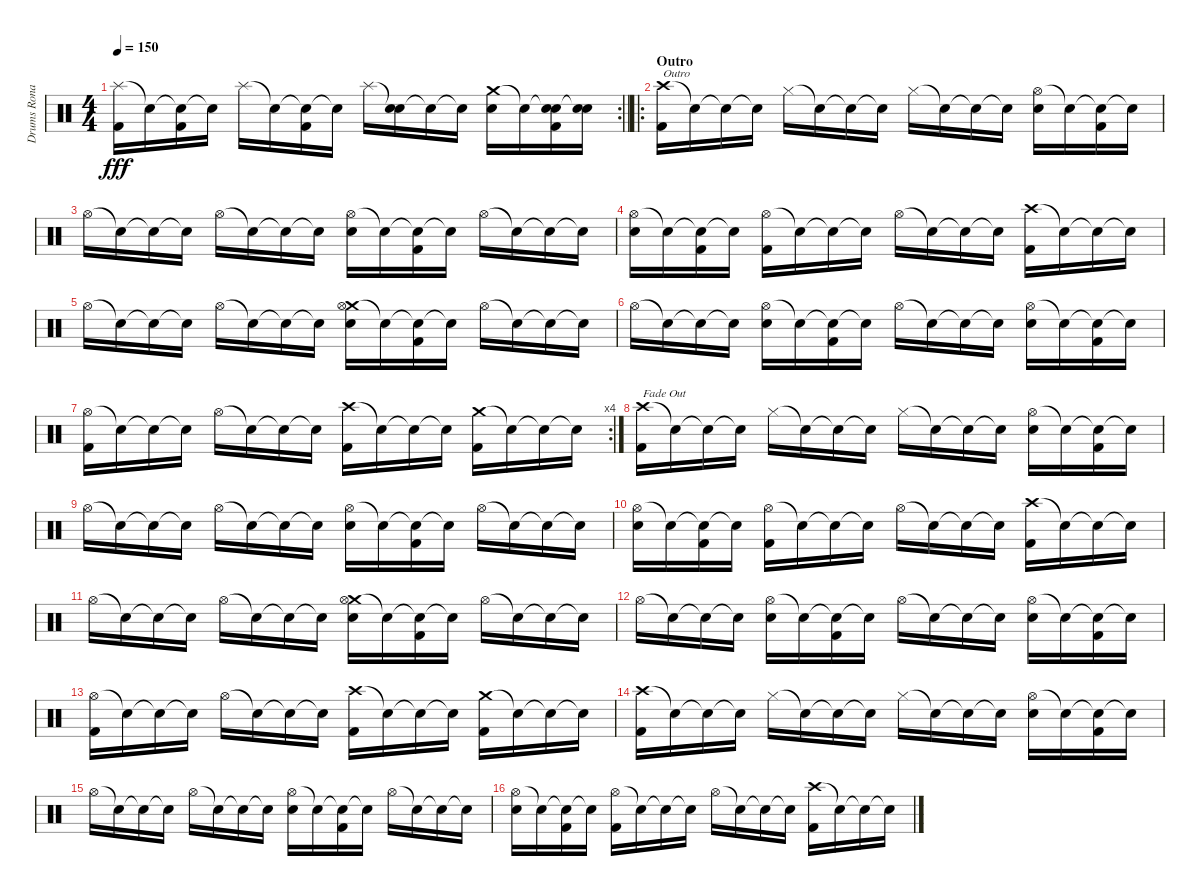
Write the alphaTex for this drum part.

\track ("Drums Ronald Reagen FTW" "Drums Rona") {instrument percussion}
\staff {score}
\articulation defaults
\rc 2
\ts (4 4)
\tempo 150
\clef neutral
\barLineRight lightlight
\ks c
("Splash (hit)" "Kick (hit) 2").16{dy fff} "Snare (hit)"{t}.16 ("Snare (hit)"{t} "Kick (hit) 2").16 "Snare (hit)"{t}.16 "Splash (hit)".16 "Snare (hit)"{t}.16 ("Snare (hit)"{t} "Kick (hit) 2").16 "Snare (hit)"{t}.16 "Splash (hit)".16 ("Snare (hit)"{t} "Electric Snare (hit)").16 "Snare (hit)"{t}.16 "Snare (hit)"{t}.16 ("Crash medium (hit)" "Electric Snare (hit)").16 "Snare (hit)"{t}.16 ("Snare (hit)"{t} "Electric Snare (hit)" "Kick (hit) 2").16 ("Snare (hit)"{t} "Electric Snare (hit)").16 |
\ro
\section ("" "Outro")
("Crash high (hit)" "Kick (hit) 2").16{txt "Outro"} "Snare (hit)"{t}.16 "Snare (hit)"{t}.16 "Snare (hit)"{t}.16 "Hi-Hat (closed)".16 "Snare (hit)"{t}.16 "Snare (hit)"{t}.16 "Snare (hit)"{t}.16 "Hi-Hat (closed)".16 "Snare (hit)"{t}.16 "Snare (hit)"{t}.16 "Snare (hit)"{t}.16 ("Hi-Hat (open)" "Electric Snare (hit)").16 "Snare (hit)"{t}.16 ("Snare (hit)"{t} "Kick (hit) 2").16 "Snare (hit)"{t}.16 |
"Hi-Hat (open)".16 "Snare (hit)"{t}.16 "Snare (hit)"{t}.16 "Snare (hit)"{t}.16 "Hi-Hat (open)".16 "Snare (hit)"{t}.16 "Snare (hit)"{t}.16 "Snare (hit)"{t}.16 ("Hi-Hat (open)" "Electric Snare (hit)").16 "Snare (hit)"{t}.16 ("Snare (hit)"{t} "Kick (hit) 2").16 "Snare (hit)"{t}.16 "Hi-Hat (open)".16 "Snare (hit)"{t}.16 "Snare (hit)"{t}.16 "Snare (hit)"{t}.16 |
("Hi-Hat (open)" "Electric Snare (hit)").16 "Snare (hit)"{t}.16 ("Snare (hit)"{t} "Kick (hit) 2").16 "Snare (hit)"{t}.16 ("Hi-Hat (open)" "Kick (hit) 2").16 "Snare (hit)"{t}.16 "Snare (hit)"{t}.16 "Snare (hit)"{t}.16 "Hi-Hat (open)".16 "Snare (hit)"{t}.16 "Snare (hit)"{t}.16 "Snare (hit)"{t}.16 ("Crash high (hit)" "Kick (hit) 2").16 "Snare (hit)"{t}.16 "Snare (hit)"{t}.16 "Snare (hit)"{t}.16 |
"Hi-Hat (open)".16 "Snare (hit)"{t}.16 "Snare (hit)"{t}.16 "Snare (hit)"{t}.16 "Hi-Hat (open)".16 "Snare (hit)"{t}.16 "Snare (hit)"{t}.16 "Snare (hit)"{t}.16 ("Crash medium (hit)" "Hi-Hat (open)" "Electric Snare (hit)").16 "Snare (hit)"{t}.16 ("Snare (hit)"{t} "Kick (hit) 2").16 "Snare (hit)"{t}.16 "Hi-Hat (open)".16 "Snare (hit)"{t}.16 "Snare (hit)"{t}.16 "Snare (hit)"{t}.16 |
"Hi-Hat (open)".16 "Snare (hit)"{t}.16 "Snare (hit)"{t}.16 "Snare (hit)"{t}.16 ("Hi-Hat (open)" "Electric Snare (hit)").16 "Snare (hit)"{t}.16 ("Snare (hit)"{t} "Kick (hit) 2").16 "Snare (hit)"{t}.16 "Hi-Hat (open)".16 "Snare (hit)"{t}.16 "Snare (hit)"{t}.16 "Snare (hit)"{t}.16 ("Hi-Hat (open)" "Electric Snare (hit)").16 "Snare (hit)"{t}.16 ("Snare (hit)"{t} "Kick (hit) 2").16 "Snare (hit)"{t}.16 |
\rc 4
("Hi-Hat (open)" "Kick (hit) 2").16 "Snare (hit)"{t}.16 "Snare (hit)"{t}.16 "Snare (hit)"{t}.16 "Hi-Hat (open)".16 "Snare (hit)"{t}.16 "Snare (hit)"{t}.16 "Snare (hit)"{t}.16 ("Crash high (hit)" "Kick (hit) 2").16 "Snare (hit)"{t}.16 "Snare (hit)"{t}.16 "Snare (hit)"{t}.16 ("Crash medium (hit)" "Kick (hit) 2").16 "Snare (hit)"{t}.16 "Snare (hit)"{t}.16 "Snare (hit)"{t}.16 |
("Crash high (hit)" "Kick (hit) 2").16{txt "Fade Out"} "Snare (hit)"{t}.16 "Snare (hit)"{t}.16 "Snare (hit)"{t}.16 "Hi-Hat (closed)".16 "Snare (hit)"{t}.16 "Snare (hit)"{t}.16 "Snare (hit)"{t}.16 "Hi-Hat (closed)".16 "Snare (hit)"{t}.16 "Snare (hit)"{t}.16 "Snare (hit)"{t}.16 ("Hi-Hat (open)" "Electric Snare (hit)").16 "Snare (hit)"{t}.16 ("Snare (hit)"{t} "Kick (hit) 2").16 "Snare (hit)"{t}.16 |
"Hi-Hat (open)".16 "Snare (hit)"{t}.16 "Snare (hit)"{t}.16 "Snare (hit)"{t}.16 "Hi-Hat (open)".16 "Snare (hit)"{t}.16 "Snare (hit)"{t}.16 "Snare (hit)"{t}.16 ("Hi-Hat (open)" "Electric Snare (hit)").16 "Snare (hit)"{t}.16 ("Snare (hit)"{t} "Kick (hit) 2").16 "Snare (hit)"{t}.16 "Hi-Hat (open)".16 "Snare (hit)"{t}.16 "Snare (hit)"{t}.16 "Snare (hit)"{t}.16 |
("Hi-Hat (open)" "Electric Snare (hit)").16 "Snare (hit)"{t}.16 ("Snare (hit)"{t} "Kick (hit) 2").16 "Snare (hit)"{t}.16 ("Hi-Hat (open)" "Kick (hit) 2").16 "Snare (hit)"{t}.16 "Snare (hit)"{t}.16 "Snare (hit)"{t}.16 "Hi-Hat (open)".16 "Snare (hit)"{t}.16 "Snare (hit)"{t}.16 "Snare (hit)"{t}.16 ("Crash high (hit)" "Kick (hit) 2").16 "Snare (hit)"{t}.16 "Snare (hit)"{t}.16 "Snare (hit)"{t}.16 |
"Hi-Hat (open)".16 "Snare (hit)"{t}.16 "Snare (hit)"{t}.16 "Snare (hit)"{t}.16 "Hi-Hat (open)".16 "Snare (hit)"{t}.16 "Snare (hit)"{t}.16 "Snare (hit)"{t}.16 ("Crash medium (hit)" "Hi-Hat (open)" "Electric Snare (hit)").16 "Snare (hit)"{t}.16 ("Snare (hit)"{t} "Kick (hit) 2").16 "Snare (hit)"{t}.16 "Hi-Hat (open)".16 "Snare (hit)"{t}.16 "Snare (hit)"{t}.16 "Snare (hit)"{t}.16 |
"Hi-Hat (open)".16 "Snare (hit)"{t}.16 "Snare (hit)"{t}.16 "Snare (hit)"{t}.16 ("Hi-Hat (open)" "Electric Snare (hit)").16 "Snare (hit)"{t}.16 ("Snare (hit)"{t} "Kick (hit) 2").16 "Snare (hit)"{t}.16 "Hi-Hat (open)".16 "Snare (hit)"{t}.16 "Snare (hit)"{t}.16 "Snare (hit)"{t}.16 ("Hi-Hat (open)" "Electric Snare (hit)").16 "Snare (hit)"{t}.16 ("Snare (hit)"{t} "Kick (hit) 2").16 "Snare (hit)"{t}.16 |
("Hi-Hat (open)" "Kick (hit) 2").16 "Snare (hit)"{t}.16 "Snare (hit)"{t}.16 "Snare (hit)"{t}.16 "Hi-Hat (open)".16 "Snare (hit)"{t}.16 "Snare (hit)"{t}.16 "Snare (hit)"{t}.16 ("Crash high (hit)" "Kick (hit) 2").16 "Snare (hit)"{t}.16 "Snare (hit)"{t}.16 "Snare (hit)"{t}.16 ("Crash medium (hit)" "Kick (hit) 2").16 "Snare (hit)"{t}.16 "Snare (hit)"{t}.16 "Snare (hit)"{t}.16 |
("Crash high (hit)" "Kick (hit) 2").16 "Snare (hit)"{t}.16 "Snare (hit)"{t}.16 "Snare (hit)"{t}.16 "Hi-Hat (closed)".16 "Snare (hit)"{t}.16 "Snare (hit)"{t}.16 "Snare (hit)"{t}.16 "Hi-Hat (closed)".16 "Snare (hit)"{t}.16 "Snare (hit)"{t}.16 "Snare (hit)"{t}.16 ("Hi-Hat (open)" "Electric Snare (hit)").16 "Snare (hit)"{t}.16 ("Snare (hit)"{t} "Kick (hit) 2").16 "Snare (hit)"{t}.16 |
"Hi-Hat (open)".16 "Snare (hit)"{t}.16 "Snare (hit)"{t}.16 "Snare (hit)"{t}.16 "Hi-Hat (open)".16 "Snare (hit)"{t}.16 "Snare (hit)"{t}.16 "Snare (hit)"{t}.16 ("Hi-Hat (open)" "Electric Snare (hit)").16 "Snare (hit)"{t}.16 ("Snare (hit)"{t} "Kick (hit) 2").16 "Snare (hit)"{t}.16 "Hi-Hat (open)".16 "Snare (hit)"{t}.16 "Snare (hit)"{t}.16 "Snare (hit)"{t}.16 |
("Hi-Hat (open)" "Electric Snare (hit)").16 "Snare (hit)"{t}.16 ("Snare (hit)"{t} "Kick (hit) 2").16 "Snare (hit)"{t}.16 ("Hi-Hat (open)" "Kick (hit) 2").16 "Snare (hit)"{t}.16 "Snare (hit)"{t}.16 "Snare (hit)"{t}.16 "Hi-Hat (open)".16 "Snare (hit)"{t}.16 "Snare (hit)"{t}.16 "Snare (hit)"{t}.16 ("Crash high (hit)" "Kick (hit) 2").16 "Snare (hit)"{t}.16 "Snare (hit)"{t}.16 "Snare (hit)"{t}.16
